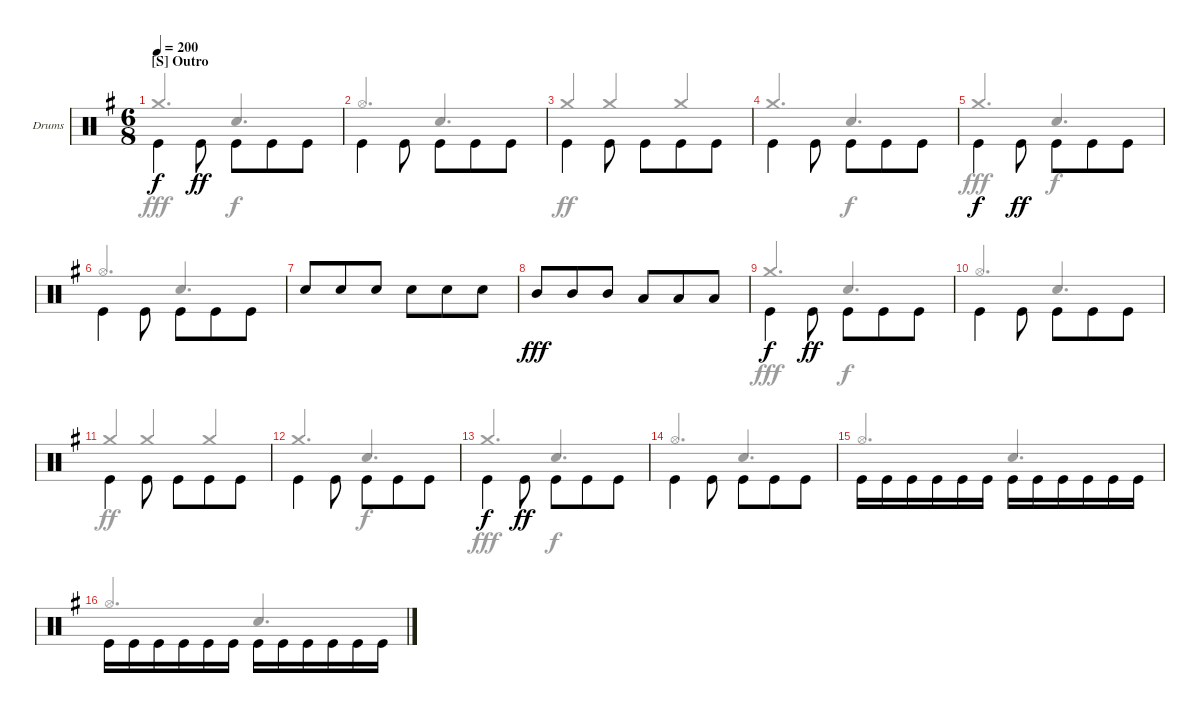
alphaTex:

\bracketExtendMode groupsimilarinstruments
\firstSystemTrackNameOrientation horizontal
\otherSystemsTrackNameOrientation horizontal
\track ("Drumkit" "Drums") {instrument percussion}
\staff {score}
\articulation defaults
\voice
\ts (6 8)
\section ("S" "Outro")
\tempo 200
\clef neutral
\ks eminor "Kick (hit)".4{dy f beam invert} "Kick (hit)".8{dy ff beam invert} "Kick (hit)".8{beam invert} "Kick (hit)".8 "Kick (hit)".8
|
"Kick (hit)".4{beam invert} "Kick (hit)".8{beam invert} "Kick (hit)".8 "Kick (hit)".8{beam invert} "Kick (hit)".8 |
"Kick (hit)".4{beam invert} "Kick (hit)".8{beam invert} "Kick (hit)".8{beam invert} "Kick (hit)".8 "Kick (hit)".8 |
"Kick (hit)".4{beam invert} "Kick (hit)".8{beam invert} "Kick (hit)".8 "Kick (hit)".8 "Kick (hit)".8{beam invert} |
"Kick (hit)".4{dy f beam invert} "Kick (hit)".8{dy ff beam invert} "Kick (hit)".8{beam invert} "Kick (hit)".8 "Kick (hit)".8 |
"Kick (hit)".4{beam invert} "Kick (hit)".8{beam invert} "Kick (hit)".8 "Kick (hit)".8{beam invert} "Kick (hit)".8 |
"Snare (hit) 2".8{beam invert} "Snare (hit) 2".8{beam invert} "Snare (hit) 2".8 "Snare (hit) 2".8 "Snare (hit) 2".8 "Snare (hit) 2".8 |
"Mid Tom (hit)".8{dy fff beam invert} "Mid Tom (hit)".8 "Mid Tom (hit)".8 "Low Tom (hit)".8 "Low Tom (hit)".8 "Low Tom (hit)".8 |
"Kick (hit)".4{dy f beam invert} "Kick (hit)".8{dy ff beam invert} "Kick (hit)".8{beam invert} "Kick (hit)".8 "Kick (hit)".8 |
"Kick (hit)".4{beam invert} "Kick (hit)".8{beam invert} "Kick (hit)".8 "Kick (hit)".8{beam invert} "Kick (hit)".8 |
"Kick (hit)".4{beam invert} "Kick (hit)".8{beam invert} "Kick (hit)".8{beam invert} "Kick (hit)".8 "Kick (hit)".8 |
"Kick (hit)".4{beam invert} "Kick (hit)".8{beam invert} "Kick (hit)".8 "Kick (hit)".8 "Kick (hit)".8{beam invert} |
"Kick (hit)".4{dy f beam invert} "Kick (hit)".8{dy ff beam invert} "Kick (hit)".8{beam invert} "Kick (hit)".8 "Kick (hit)".8 |
"Kick (hit)".4{beam invert} "Kick (hit)".8{beam invert} "Kick (hit)".8 "Kick (hit)".8{beam invert} "Kick (hit)".8 |
"Kick (hit)".16{beam invert} "Kick (hit)".16{beam invert} "Kick (hit)".16{beam invert} "Kick (hit)".16 "Kick (hit)".16 "Kick (hit)".16 "Kick (hit)".16{beam invert} "Kick (hit)".16 "Kick (hit)".16 "Kick (hit)".16 "Kick (hit)".16 "Kick (hit)".16 |
"Kick (hit)".16{beam invert} "Kick (hit)".16{beam invert} "Kick (hit)".16{beam invert} "Kick (hit)".16 "Kick (hit)".16 "Kick (hit)".16 "Kick (hit)".16{beam invert} "Kick (hit)".16 "Kick (hit)".16 "Kick (hit)".16 "Kick (hit)".16 "Kick (hit)".16
\voice
\clef neutral
\ottava regular
\simile none
\ks eminor "Crash medium (hit)".4{d dy fff beam invert} "Snare (hit) 2".4{d dy f beam invert}
|
"Hi-Hat (open)".4{d beam invert} "Snare (hit) 2".4{d beam invert} |
"Crash medium (hit)".4{dy ff beam invert} "Crash medium (hit)".4{beam invert} "Crash medium (hit)".4{beam invert} |
"Crash medium (hit)".4{d beam invert} "Snare (hit) 2".4{d dy f beam invert} |
"Crash medium (hit)".4{d dy fff beam invert} "Snare (hit) 2".4{d dy f beam invert} |
"Hi-Hat (open)".4{d beam invert} "Snare (hit) 2".4{d beam invert} |
|
|
"Crash medium (hit)".4{d dy fff beam invert} "Snare (hit) 2".4{d dy f beam invert} |
"Hi-Hat (open)".4{d beam invert} "Snare (hit) 2".4{d beam invert} |
"Crash medium (hit)".4{dy ff beam invert} "Crash medium (hit)".4{beam invert} "Crash medium (hit)".4{beam invert} |
"Crash medium (hit)".4{d beam invert} "Snare (hit) 2".4{d dy f beam invert} |
"Crash medium (hit)".4{d dy fff beam invert} "Snare (hit) 2".4{d dy f beam invert} |
"Hi-Hat (open)".4{d beam invert} "Snare (hit) 2".4{d beam invert} |
"Hi-Hat (open)".4{d beam invert} "Snare (hit) 2".4{d beam invert} |
"Hi-Hat (open)".4{d beam invert} "Snare (hit) 2".4{d beam invert}
